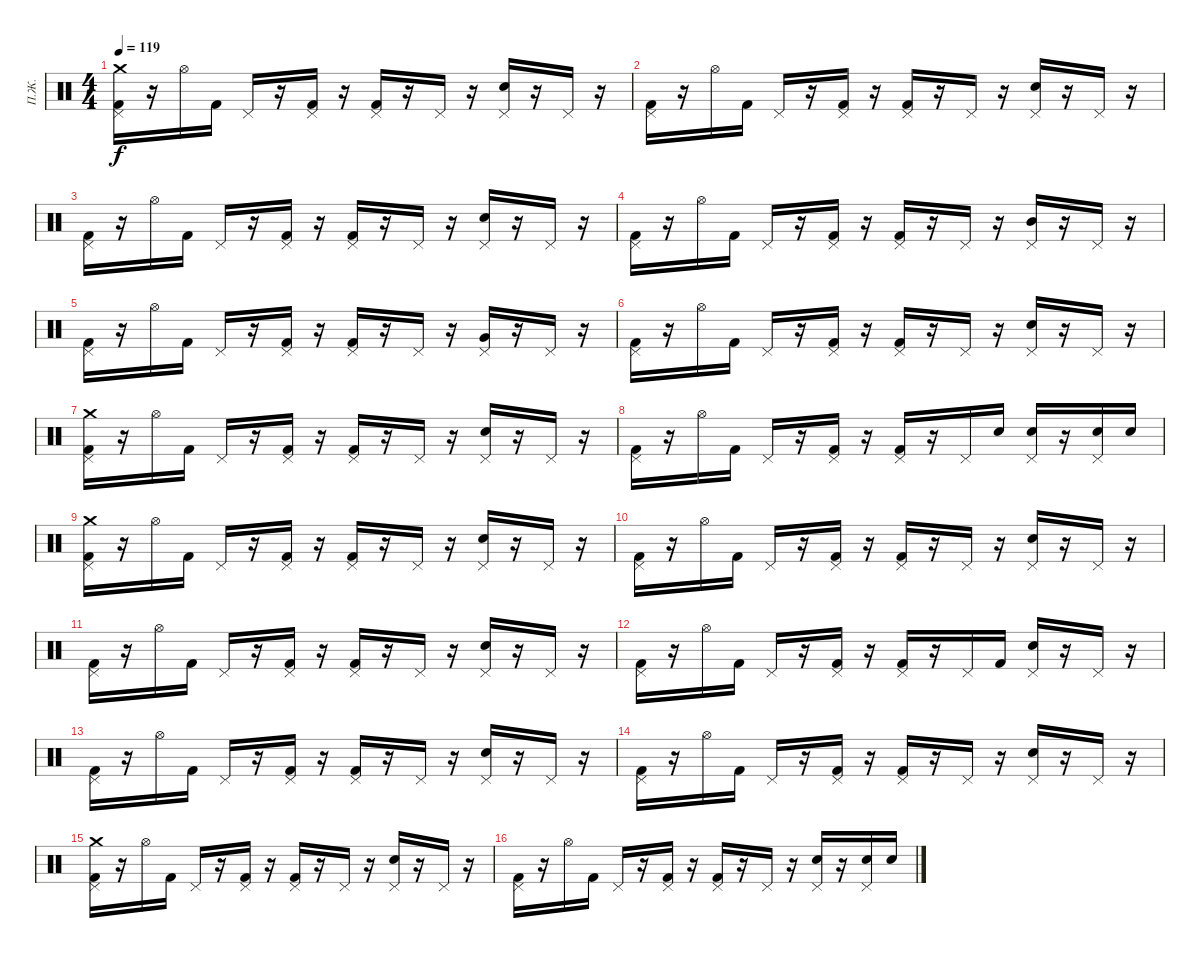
\track ("П.Ж." "П.Ж.") {instrument percussion}
\staff {score}
\articulation defaults
\ts (4 4)
\tempo 119
\clef neutral
\ks c
("Crash medium (hit)" "Kick (hit) 2" "Pedal Hi-Hat (hit)").16{dy f} r.16 "Hi-Hat (open)".16 "Kick (hit) 2".16 "Pedal Hi-Hat (hit)".16 r.16 ("Kick (hit) 2" "Pedal Hi-Hat (hit)").16 r.16 ("Kick (hit) 2" "Pedal Hi-Hat (hit)").16 r.16 "Pedal Hi-Hat (hit)".16 r.16 ("Electric Snare (hit)" "Pedal Hi-Hat (hit)").16 r.16 "Pedal Hi-Hat (hit)".16 r.16 |
("Kick (hit) 2" "Pedal Hi-Hat (hit)").16 r.16 "Hi-Hat (open)".16 "Kick (hit) 2".16 "Pedal Hi-Hat (hit)".16 r.16 ("Kick (hit) 2" "Pedal Hi-Hat (hit)").16 r.16 ("Kick (hit) 2" "Pedal Hi-Hat (hit)").16 r.16 "Pedal Hi-Hat (hit)".16 r.16 ("Electric Snare (hit)" "Pedal Hi-Hat (hit)").16 r.16 "Pedal Hi-Hat (hit)".16 r.16 |
("Kick (hit) 2" "Pedal Hi-Hat (hit)").16 r.16 "Hi-Hat (open)".16 "Kick (hit) 2".16 "Pedal Hi-Hat (hit)".16 r.16 ("Kick (hit) 2" "Pedal Hi-Hat (hit)").16 r.16 ("Kick (hit) 2" "Pedal Hi-Hat (hit)").16 r.16 "Pedal Hi-Hat (hit)".16 r.16 ("Electric Snare (hit)" "Pedal Hi-Hat (hit)").16 r.16 "Pedal Hi-Hat (hit)".16 r.16 |
("Kick (hit) 2" "Pedal Hi-Hat (hit)").16 r.16 "Hi-Hat (open)".16 "Kick (hit) 2".16 "Pedal Hi-Hat (hit)".16 r.16 ("Kick (hit) 2" "Pedal Hi-Hat (hit)").16 r.16 ("Kick (hit) 2" "Pedal Hi-Hat (hit)").16 r.16 "Pedal Hi-Hat (hit)".16 r.16 ("Pedal Hi-Hat (hit)" "Mid Tom (hit)").16 r.16 "Pedal Hi-Hat (hit)".16 r.16 |
("Kick (hit) 2" "Pedal Hi-Hat (hit)").16 r.16 "Hi-Hat (open)".16 "Kick (hit) 2".16 "Pedal Hi-Hat (hit)".16 r.16 ("Kick (hit) 2" "Pedal Hi-Hat (hit)").16 r.16 ("Kick (hit) 2" "Pedal Hi-Hat (hit)").16 r.16 "Pedal Hi-Hat (hit)".16 r.16 ("Pedal Hi-Hat (hit)" "Very Low Tom (hit)").16 r.16 "Pedal Hi-Hat (hit)".16 r.16 |
("Kick (hit) 2" "Pedal Hi-Hat (hit)").16 r.16 "Hi-Hat (open)".16 "Kick (hit) 2".16 "Pedal Hi-Hat (hit)".16 r.16 ("Kick (hit) 2" "Pedal Hi-Hat (hit)").16 r.16 ("Kick (hit) 2" "Pedal Hi-Hat (hit)").16 r.16 "Pedal Hi-Hat (hit)".16 r.16 ("Electric Snare (hit)" "Pedal Hi-Hat (hit)").16 r.16 "Pedal Hi-Hat (hit)".16 r.16 |
("Kick (hit) 2" "Pedal Hi-Hat (hit)" "Crash medium (hit)").16 r.16 "Hi-Hat (open)".16 "Kick (hit) 2".16 "Pedal Hi-Hat (hit)".16 r.16 ("Kick (hit) 2" "Pedal Hi-Hat (hit)").16 r.16 ("Kick (hit) 2" "Pedal Hi-Hat (hit)").16 r.16 "Pedal Hi-Hat (hit)".16 r.16 ("Electric Snare (hit)" "Pedal Hi-Hat (hit)").16 r.16 "Pedal Hi-Hat (hit)".16 r.16 |
("Kick (hit) 2" "Pedal Hi-Hat (hit)").16 r.16 "Hi-Hat (open)".16 "Kick (hit) 2".16 "Pedal Hi-Hat (hit)".16 r.16 ("Kick (hit) 2" "Pedal Hi-Hat (hit)").16 r.16 ("Kick (hit) 2" "Pedal Hi-Hat (hit)").16 r.16 "Pedal Hi-Hat (hit)".16 "Electric Snare (hit)".16 ("Electric Snare (hit)" "Pedal Hi-Hat (hit)").16 r.16 ("Pedal Hi-Hat (hit)" "Electric Snare (hit)").16 "Electric Snare (hit)".16 |
("Crash medium (hit)" "Kick (hit) 2" "Pedal Hi-Hat (hit)").16 r.16 "Hi-Hat (open)".16 "Kick (hit) 2".16 "Pedal Hi-Hat (hit)".16 r.16 ("Kick (hit) 2" "Pedal Hi-Hat (hit)").16 r.16 ("Kick (hit) 2" "Pedal Hi-Hat (hit)").16 r.16 "Pedal Hi-Hat (hit)".16 r.16 ("Electric Snare (hit)" "Pedal Hi-Hat (hit)").16 r.16 "Pedal Hi-Hat (hit)".16 r.16 |
("Kick (hit) 2" "Pedal Hi-Hat (hit)").16 r.16 "Hi-Hat (open)".16 "Kick (hit) 2".16 "Pedal Hi-Hat (hit)".16 r.16 ("Kick (hit) 2" "Pedal Hi-Hat (hit)").16 r.16 ("Kick (hit) 2" "Pedal Hi-Hat (hit)").16 r.16 "Pedal Hi-Hat (hit)".16 r.16 ("Electric Snare (hit)" "Pedal Hi-Hat (hit)").16 r.16 "Pedal Hi-Hat (hit)".16 r.16 |
("Kick (hit) 2" "Pedal Hi-Hat (hit)").16 r.16 "Hi-Hat (open)".16 "Kick (hit) 2".16 "Pedal Hi-Hat (hit)".16 r.16 ("Kick (hit) 2" "Pedal Hi-Hat (hit)").16 r.16 ("Kick (hit) 2" "Pedal Hi-Hat (hit)").16 r.16 "Pedal Hi-Hat (hit)".16 r.16 ("Electric Snare (hit)" "Pedal Hi-Hat (hit)").16 r.16 "Pedal Hi-Hat (hit)".16 r.16 |
("Kick (hit) 2" "Pedal Hi-Hat (hit)").16 r.16 "Hi-Hat (open)".16 "Kick (hit) 2".16 "Pedal Hi-Hat (hit)".16 r.16 ("Kick (hit) 2" "Pedal Hi-Hat (hit)").16 r.16 ("Kick (hit) 2" "Pedal Hi-Hat (hit)").16 r.16 "Pedal Hi-Hat (hit)".16 "Kick (hit) 2".16 ("Electric Snare (hit)" "Pedal Hi-Hat (hit)").16 r.16 "Pedal Hi-Hat (hit)".16 r.16 |
("Kick (hit) 2" "Pedal Hi-Hat (hit)").16 r.16 "Hi-Hat (open)".16 "Kick (hit) 2".16 "Pedal Hi-Hat (hit)".16 r.16 ("Kick (hit) 2" "Pedal Hi-Hat (hit)").16 r.16 ("Kick (hit) 2" "Pedal Hi-Hat (hit)").16 r.16 "Pedal Hi-Hat (hit)".16 r.16 ("Electric Snare (hit)" "Pedal Hi-Hat (hit)").16 r.16 "Pedal Hi-Hat (hit)".16 r.16 |
("Kick (hit) 2" "Pedal Hi-Hat (hit)").16 r.16 "Hi-Hat (open)".16 "Kick (hit) 2".16 "Pedal Hi-Hat (hit)".16 r.16 ("Kick (hit) 2" "Pedal Hi-Hat (hit)").16 r.16 ("Kick (hit) 2" "Pedal Hi-Hat (hit)").16 r.16 "Pedal Hi-Hat (hit)".16 r.16 ("Electric Snare (hit)" "Pedal Hi-Hat (hit)").16 r.16 "Pedal Hi-Hat (hit)".16 r.16 |
("Kick (hit) 2" "Pedal Hi-Hat (hit)" "Crash medium (hit)").16 r.16 "Hi-Hat (open)".16 "Kick (hit) 2".16 "Pedal Hi-Hat (hit)".16 r.16 ("Kick (hit) 2" "Pedal Hi-Hat (hit)").16 r.16 ("Kick (hit) 2" "Pedal Hi-Hat (hit)").16 r.16 "Pedal Hi-Hat (hit)".16 r.16 ("Electric Snare (hit)" "Pedal Hi-Hat (hit)").16 r.16 "Pedal Hi-Hat (hit)".16 r.16 |
("Kick (hit) 2" "Pedal Hi-Hat (hit)").16 r.16 "Hi-Hat (open)".16 "Kick (hit) 2".16 "Pedal Hi-Hat (hit)".16 r.16 ("Kick (hit) 2" "Pedal Hi-Hat (hit)").16 r.16 ("Kick (hit) 2" "Pedal Hi-Hat (hit)").16 r.16 "Pedal Hi-Hat (hit)".16 r.16 ("Electric Snare (hit)" "Pedal Hi-Hat (hit)").16 r.16 ("Pedal Hi-Hat (hit)" "Electric Snare (hit)").16 "Electric Snare (hit)".16
